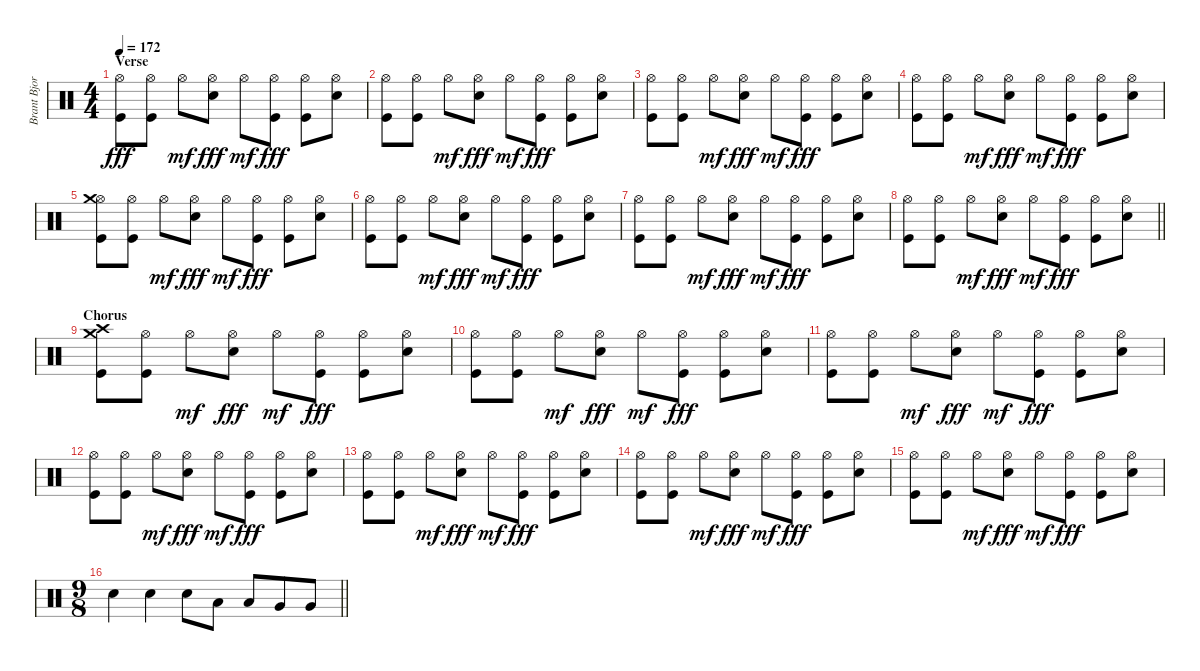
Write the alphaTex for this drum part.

\track ("Brant Bjork" "Brant Bjor") {instrument percussion}
\staff {score}
\articulation defaults
\ts (4 4)
\section ("" "Verse")
\tempo 172
\clef neutral
\ks c
("Hi-Hat (open)" "Kick (hit)").8{dy fff} ("Hi-Hat (open)" "Kick (hit)").8 "Hi-Hat (open)".8{dy mf} ("Hi-Hat (open)" "Snare (hit) 2").8{dy fff} "Hi-Hat (open)".8{dy mf} ("Hi-Hat (open)" "Kick (hit)").8{dy fff} ("Hi-Hat (open)" "Kick (hit)").8 ("Hi-Hat (open)" "Snare (hit) 2").8 |
("Hi-Hat (open)" "Kick (hit)").8 ("Hi-Hat (open)" "Kick (hit)").8 "Hi-Hat (open)".8{dy mf} ("Hi-Hat (open)" "Snare (hit) 2").8{dy fff} "Hi-Hat (open)".8{dy mf} ("Hi-Hat (open)" "Kick (hit)").8{dy fff} ("Hi-Hat (open)" "Kick (hit)").8 ("Hi-Hat (open)" "Snare (hit) 2").8 |
("Hi-Hat (open)" "Kick (hit)").8 ("Hi-Hat (open)" "Kick (hit)").8 "Hi-Hat (open)".8{dy mf} ("Hi-Hat (open)" "Snare (hit) 2").8{dy fff} "Hi-Hat (open)".8{dy mf} ("Hi-Hat (open)" "Kick (hit)").8{dy fff} ("Hi-Hat (open)" "Kick (hit)").8 ("Hi-Hat (open)" "Snare (hit) 2").8 |
("Hi-Hat (open)" "Kick (hit)").8 ("Hi-Hat (open)" "Kick (hit)").8 "Hi-Hat (open)".8{dy mf} ("Hi-Hat (open)" "Snare (hit) 2").8{dy fff} "Hi-Hat (open)".8{dy mf} ("Hi-Hat (open)" "Kick (hit)").8{dy fff} ("Hi-Hat (open)" "Kick (hit)").8 ("Hi-Hat (open)" "Snare (hit) 2").8 |
("Hi-Hat (open)" "Crash medium (hit)" "Kick (hit)").8 ("Hi-Hat (open)" "Kick (hit)").8 "Hi-Hat (open)".8{dy mf} ("Hi-Hat (open)" "Snare (hit) 2").8{dy fff} "Hi-Hat (open)".8{dy mf} ("Hi-Hat (open)" "Kick (hit)").8{dy fff} ("Hi-Hat (open)" "Kick (hit)").8 ("Hi-Hat (open)" "Snare (hit) 2").8 |
("Hi-Hat (open)" "Kick (hit)").8 ("Hi-Hat (open)" "Kick (hit)").8 "Hi-Hat (open)".8{dy mf} ("Hi-Hat (open)" "Snare (hit) 2").8{dy fff} "Hi-Hat (open)".8{dy mf} ("Hi-Hat (open)" "Kick (hit)").8{dy fff} ("Hi-Hat (open)" "Kick (hit)").8 ("Hi-Hat (open)" "Snare (hit) 2").8 |
("Hi-Hat (open)" "Kick (hit)").8 ("Hi-Hat (open)" "Kick (hit)").8 "Hi-Hat (open)".8{dy mf} ("Hi-Hat (open)" "Snare (hit) 2").8{dy fff} "Hi-Hat (open)".8{dy mf} ("Hi-Hat (open)" "Kick (hit)").8{dy fff} ("Hi-Hat (open)" "Kick (hit)").8 ("Hi-Hat (open)" "Snare (hit) 2").8 |
\barLineRight lightlight
("Hi-Hat (open)" "Kick (hit)").8 ("Hi-Hat (open)" "Kick (hit)").8 "Hi-Hat (open)".8{dy mf} ("Hi-Hat (open)" "Snare (hit) 2").8{dy fff} "Hi-Hat (open)".8{dy mf} ("Hi-Hat (open)" "Kick (hit)").8{dy fff} ("Hi-Hat (open)" "Kick (hit)").8 ("Hi-Hat (open)" "Snare (hit) 2").8 |
\section ("" "Chorus")
("Crash high (hit)" "Crash medium (hit)" "Kick (hit)").8 ("Hi-Hat (open)" "Kick (hit)").8 "Hi-Hat (open)".8{dy mf} ("Hi-Hat (open)" "Snare (hit) 2").8{dy fff} "Hi-Hat (open)".8{dy mf} ("Hi-Hat (open)" "Kick (hit)").8{dy fff} ("Hi-Hat (open)" "Kick (hit)").8 ("Hi-Hat (open)" "Snare (hit) 2").8 |
("Hi-Hat (open)" "Kick (hit)").8 ("Hi-Hat (open)" "Kick (hit)").8 "Hi-Hat (open)".8{dy mf} ("Hi-Hat (open)" "Snare (hit) 2").8{dy fff} "Hi-Hat (open)".8{dy mf} ("Hi-Hat (open)" "Kick (hit)").8{dy fff} ("Hi-Hat (open)" "Kick (hit)").8 ("Hi-Hat (open)" "Snare (hit) 2").8 |
("Hi-Hat (open)" "Kick (hit)").8 ("Hi-Hat (open)" "Kick (hit)").8 "Hi-Hat (open)".8{dy mf} ("Hi-Hat (open)" "Snare (hit) 2").8{dy fff} "Hi-Hat (open)".8{dy mf} ("Hi-Hat (open)" "Kick (hit)").8{dy fff} ("Hi-Hat (open)" "Kick (hit)").8 ("Hi-Hat (open)" "Snare (hit) 2").8 |
("Hi-Hat (open)" "Kick (hit)").8 ("Hi-Hat (open)" "Kick (hit)").8 "Hi-Hat (open)".8{dy mf} ("Hi-Hat (open)" "Snare (hit) 2").8{dy fff} "Hi-Hat (open)".8{dy mf} ("Hi-Hat (open)" "Kick (hit)").8{dy fff} ("Hi-Hat (open)" "Kick (hit)").8 ("Hi-Hat (open)" "Snare (hit) 2").8 |
("Hi-Hat (open)" "Kick (hit)").8 ("Hi-Hat (open)" "Kick (hit)").8 "Hi-Hat (open)".8{dy mf} ("Hi-Hat (open)" "Snare (hit) 2").8{dy fff} "Hi-Hat (open)".8{dy mf} ("Hi-Hat (open)" "Kick (hit)").8{dy fff} ("Hi-Hat (open)" "Kick (hit)").8 ("Hi-Hat (open)" "Snare (hit) 2").8 |
("Hi-Hat (open)" "Kick (hit)").8 ("Hi-Hat (open)" "Kick (hit)").8 "Hi-Hat (open)".8{dy mf} ("Hi-Hat (open)" "Snare (hit) 2").8{dy fff} "Hi-Hat (open)".8{dy mf} ("Hi-Hat (open)" "Kick (hit)").8{dy fff} ("Hi-Hat (open)" "Kick (hit)").8 ("Hi-Hat (open)" "Snare (hit) 2").8 |
("Hi-Hat (open)" "Kick (hit)").8 ("Hi-Hat (open)" "Kick (hit)").8 "Hi-Hat (open)".8{dy mf} ("Hi-Hat (open)" "Snare (hit) 2").8{dy fff} "Hi-Hat (open)".8{dy mf} ("Hi-Hat (open)" "Kick (hit)").8{dy fff} ("Hi-Hat (open)" "Kick (hit)").8 ("Hi-Hat (open)" "Snare (hit) 2").8 |
\ts (9 8)
\barLineRight lightlight "Snare (hit) 2".4 "Snare (hit) 2".4 "Snare (hit) 2".8 "Low Tom (hit)".8 "Low Tom (hit)".8 "Very Low Tom (hit)".8 "Very Low Tom (hit)".8
